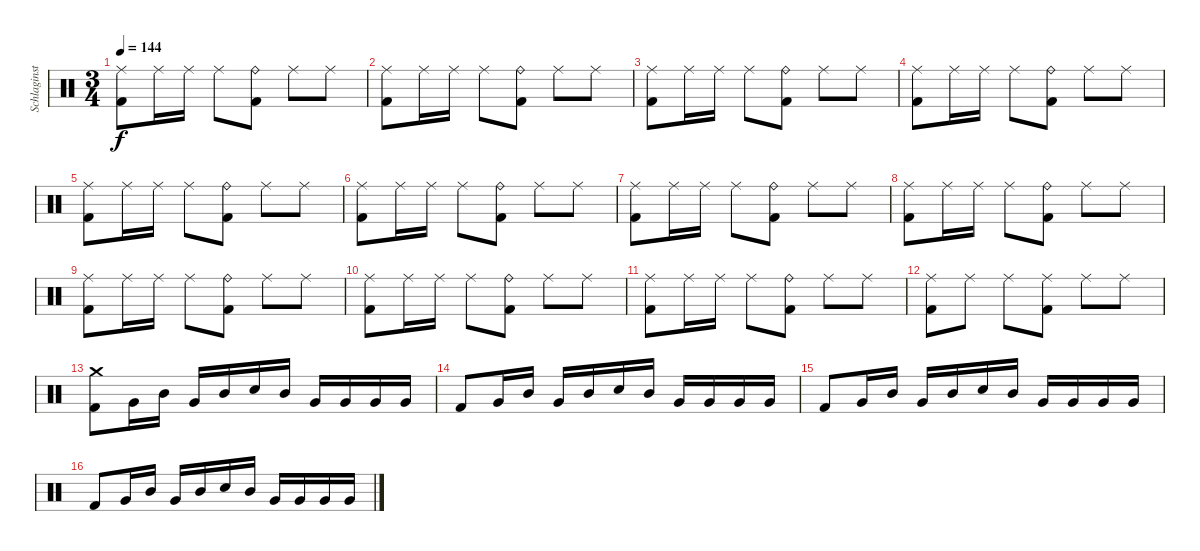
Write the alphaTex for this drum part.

\track ("Schlaginstrumente - Auswahl" "Schlaginst") {instrument percussion}
\staff {score}
\articulation defaults
\ts (3 4)
\tempo 144
\clef neutral
\ks c
("Ride (middle)" "Kick (hit) 2").8{dy f} "Ride (middle)".16 "Ride (middle)".16 "Ride (middle)".8 ("Ride (bell)" "Kick (hit) 2").8 "Ride (middle)".8 "Ride (middle)".8 |
("Ride (middle)" "Kick (hit) 2").8 "Ride (middle)".16 "Ride (middle)".16 "Ride (middle)".8 ("Ride (bell)" "Kick (hit) 2").8 "Ride (middle)".8 "Ride (middle)".8 |
("Ride (middle)" "Kick (hit) 2").8 "Ride (middle)".16 "Ride (middle)".16 "Ride (middle)".8 ("Ride (bell)" "Kick (hit) 2").8 "Ride (middle)".8 "Ride (middle)".8 |
("Ride (middle)" "Kick (hit) 2").8 "Ride (middle)".16 "Ride (middle)".16 "Ride (middle)".8 ("Ride (bell)" "Kick (hit) 2").8 "Ride (middle)".8 "Ride (middle)".8 |
("Ride (middle)" "Kick (hit) 2").8 "Ride (middle)".16 "Ride (middle)".16 "Ride (middle)".8 ("Ride (bell)" "Kick (hit) 2").8 "Ride (middle)".8 "Ride (middle)".8 |
("Ride (middle)" "Kick (hit) 2").8 "Ride (middle)".16 "Ride (middle)".16 "Ride (middle)".8 ("Ride (bell)" "Kick (hit) 2").8 "Ride (middle)".8 "Ride (middle)".8 |
("Ride (middle)" "Kick (hit) 2").8 "Ride (middle)".16 "Ride (middle)".16 "Ride (middle)".8 ("Ride (bell)" "Kick (hit) 2").8 "Ride (middle)".8 "Ride (middle)".8 |
("Ride (middle)" "Kick (hit) 2").8 "Ride (middle)".16 "Ride (middle)".16 "Ride (middle)".8 ("Ride (bell)" "Kick (hit) 2").8 "Ride (middle)".8 "Ride (middle)".8 |
("Ride (middle)" "Kick (hit) 2").8 "Ride (middle)".16 "Ride (middle)".16 "Ride (middle)".8 ("Ride (bell)" "Kick (hit) 2").8 "Ride (middle)".8 "Ride (middle)".8 |
("Ride (middle)" "Kick (hit) 2").8 "Ride (middle)".16 "Ride (middle)".16 "Ride (middle)".8 ("Ride (bell)" "Kick (hit) 2").8 "Ride (middle)".8 "Ride (middle)".8 |
("Ride (middle)" "Kick (hit) 2").8 "Ride (middle)".16 "Ride (middle)".16 "Ride (middle)".8 ("Ride (bell)" "Kick (hit) 2").8 "Ride (middle)".8 "Ride (middle)".8 |
("Ride (middle)" "Kick (hit) 2").8 "Ride (middle)".8 "Ride (middle)".8 ("Ride (middle)" "Kick (hit) 2").8 "Ride (middle)".8 "Ride (middle)".8 |
("Crash medium (hit)" "Kick (hit) 2").8 "Very Low Tom (hit)".16 "Mid Tom (hit)".16 "Very Low Tom (hit)".16 "Mid Tom (hit)".16 "Snare (hit) 2".16 "Mid Tom (hit)".16 "Very Low Tom (hit)".16 "Very Low Tom (hit)".16 "Very Low Tom (hit)".16 "Very Low Tom (hit)".16 |
"Kick (hit) 2".8 "Very Low Tom (hit)".16 "Mid Tom (hit)".16 "Very Low Tom (hit)".16 "Mid Tom (hit)".16 "Snare (hit) 2".16 "Mid Tom (hit)".16 "Very Low Tom (hit)".16 "Very Low Tom (hit)".16 "Very Low Tom (hit)".16 "Very Low Tom (hit)".16 |
"Kick (hit) 2".8 "Very Low Tom (hit)".16 "Mid Tom (hit)".16 "Very Low Tom (hit)".16 "Mid Tom (hit)".16 "Snare (hit) 2".16 "Mid Tom (hit)".16 "Very Low Tom (hit)".16 "Very Low Tom (hit)".16 "Very Low Tom (hit)".16 "Very Low Tom (hit)".16 |
"Kick (hit) 2".8 "Very Low Tom (hit)".16 "Mid Tom (hit)".16 "Very Low Tom (hit)".16 "Mid Tom (hit)".16 "Snare (hit) 2".16 "Mid Tom (hit)".16 "Very Low Tom (hit)".16 "Very Low Tom (hit)".16 "Very Low Tom (hit)".16 "Very Low Tom (hit)".16
